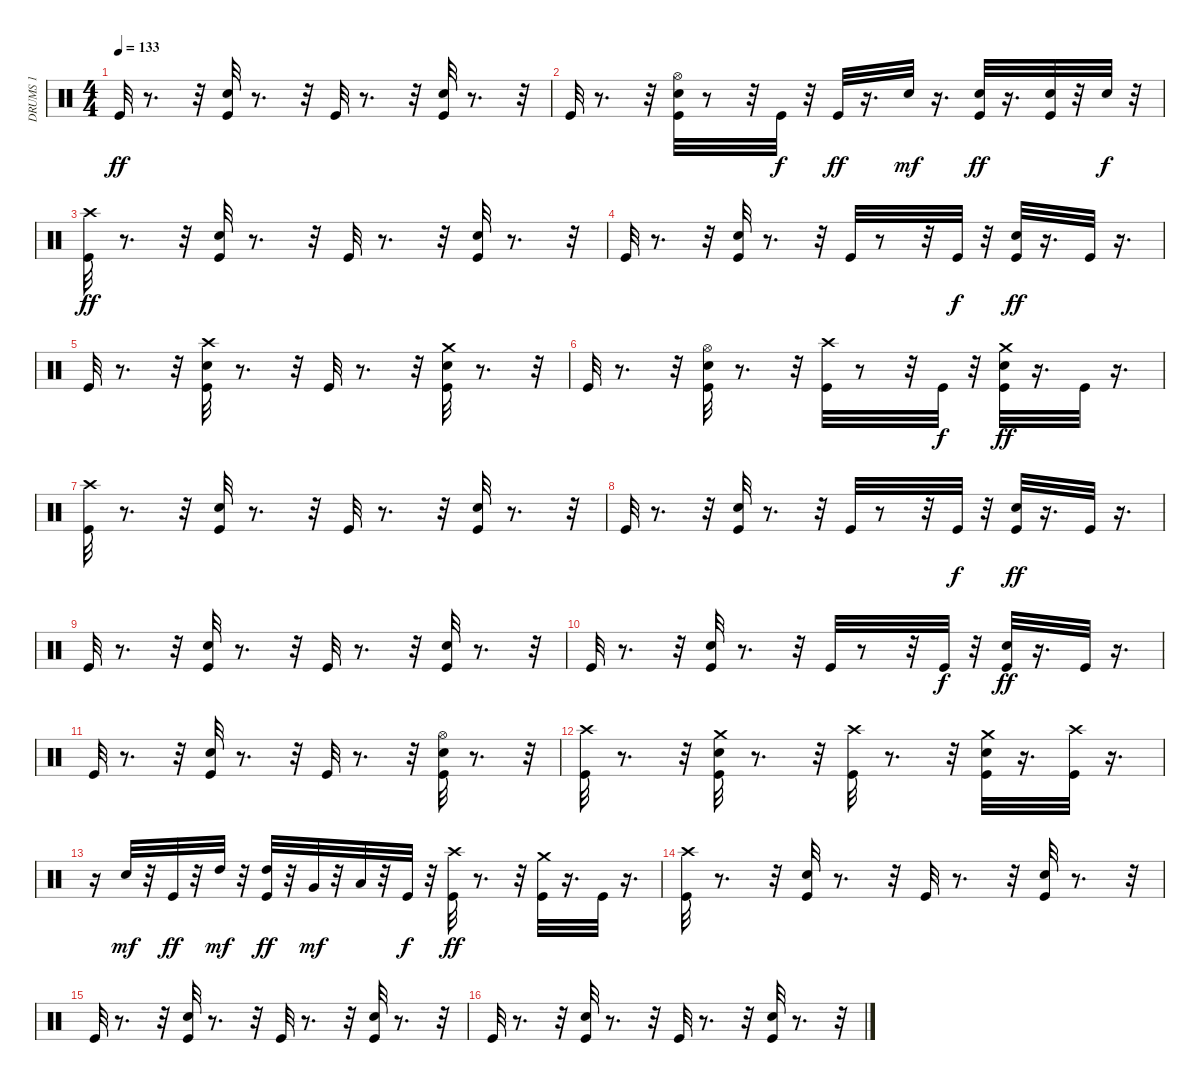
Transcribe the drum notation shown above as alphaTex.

\track ("DRUMS 1                             " "DRUMS 1   ") {instrument percussion}
\staff {score}
\articulation defaults
\ts (4 4)
\tempo 133
\clef neutral
\ks c "Kick (hit)".32{dy ff}
r.8{d} r.32 ("Electric Snare (hit)" "Kick (hit)").32 r.8{d} r.32 "Kick (hit)".32 r.8{d} r.32 ("Electric Snare (hit)" "Kick (hit)").32 r.8{d} r.32 |
"Kick (hit)".32 r.8{d} r.32 ("Hi-Hat (open)" "Electric Snare (hit)" "Kick (hit)").32 r.8 r.32 "Kick (hit)".32{dy f} r.32 "Kick (hit)".32{dy ff} r.16{d} "Electric Snare (hit)".32{dy mf} r.16{d} ("Electric Snare (hit)" "Kick (hit)").32{dy ff} r.16{d} ("Electric Snare (hit)" "Kick (hit)").32 r.32 "Electric Snare (hit)".32{dy f} r.32 |
("Crash high (hit)" "Kick (hit)").32{dy ff} r.8{d} r.32 ("Electric Snare (hit)" "Kick (hit)").32 r.8{d} r.32 "Kick (hit)".32 r.8{d} r.32 ("Electric Snare (hit)" "Kick (hit)").32 r.8{d} r.32 |
"Kick (hit)".32 r.8{d} r.32 ("Electric Snare (hit)" "Kick (hit)").32 r.8{d} r.32 "Kick (hit)".32 r.8 r.32 "Kick (hit)".32{dy f} r.32 ("Electric Snare (hit)" "Kick (hit)").32{dy ff} r.16{d} "Kick (hit)".32 r.16{d} |
"Kick (hit)".32 r.8{d} r.32 ("Crash high (hit)" "Electric Snare (hit)" "Kick (hit)").32 r.8{d} r.32 "Kick (hit)".32 r.8{d} r.32 ("Crash medium (hit)" "Electric Snare (hit)" "Kick (hit)").32 r.8{d} r.32 |
"Kick (hit)".32 r.8{d} r.32 ("Hi-Hat (open)" "Electric Snare (hit)" "Kick (hit)").32 r.8{d} r.32 ("Crash high (hit)" "Kick (hit)").32 r.8 r.32 "Kick (hit)".32{dy f} r.32 ("Crash medium (hit)" "Electric Snare (hit)" "Kick (hit)").32{dy ff} r.16{d} "Kick (hit)".32 r.16{d} |
("Crash high (hit)" "Kick (hit)").32 r.8{d} r.32 ("Electric Snare (hit)" "Kick (hit)").32 r.8{d} r.32 "Kick (hit)".32 r.8{d} r.32 ("Electric Snare (hit)" "Kick (hit)").32 r.8{d} r.32 |
"Kick (hit)".32 r.8{d} r.32 ("Electric Snare (hit)" "Kick (hit)").32 r.8{d} r.32 "Kick (hit)".32 r.8 r.32 "Kick (hit)".32{dy f} r.32 ("Electric Snare (hit)" "Kick (hit)").32{dy ff} r.16{d} "Kick (hit)".32 r.16{d} |
"Kick (hit)".32 r.8{d} r.32 ("Electric Snare (hit)" "Kick (hit)").32 r.8{d} r.32 "Kick (hit)".32 r.8{d} r.32 ("Electric Snare (hit)" "Kick (hit)").32 r.8{d} r.32 |
"Kick (hit)".32 r.8{d} r.32 ("Electric Snare (hit)" "Kick (hit)").32 r.8{d} r.32 "Kick (hit)".32 r.8 r.32 "Kick (hit)".32{dy f} r.32 ("Electric Snare (hit)" "Kick (hit)").32{dy ff} r.16{d} "Kick (hit)".32 r.16{d} |
"Kick (hit)".32 r.8{d} r.32 ("Electric Snare (hit)" "Kick (hit)").32 r.8{d} r.32 "Kick (hit)".32 r.8{d} r.32 ("Hi-Hat (open)" "Electric Snare (hit)" "Kick (hit)").32 r.8{d} r.32 |
("Crash high (hit)" "Kick (hit)").32 r.8{d} r.32 ("Electric Snare (hit)" "Crash medium (hit)" "Kick (hit)").32 r.8{d} r.32 ("Crash high (hit)" "Kick (hit)").32 r.8{d} r.32 ("Electric Snare (hit)" "Crash medium (hit)" "Kick (hit)").32 r.16{d} ("Crash high (hit)" "Kick (hit)").32 r.16{d} |
r.16 "Electric Snare (hit)".32{dy mf} r.32 "Kick (hit)".32{dy ff} r.32 "High Tom (hit)".32{dy mf} r.32 ("High Tom (hit)" "Kick (hit)").32{dy ff} r.32 "Very Low Tom (hit)".32{dy mf} r.32 "Low Floor Tom (hit)".32 r.32 "Kick (hit)".32{dy f} r.32 ("Crash high (hit)" "Kick (hit)").32{dy ff} r.8{d} r.32 ("Crash medium (hit)" "Kick (hit)").32 r.16{d} "Kick (hit)".32 r.16{d} |
("Crash high (hit)" "Kick (hit)").32 r.8{d} r.32 ("Electric Snare (hit)" "Kick (hit)").32 r.8{d} r.32 "Kick (hit)".32 r.8{d} r.32 ("Electric Snare (hit)" "Kick (hit)").32 r.8{d} r.32 |
"Kick (hit)".32 r.8{d} r.32 ("Electric Snare (hit)" "Kick (hit)").32 r.8{d} r.32 "Kick (hit)".32 r.8{d} r.32 ("Electric Snare (hit)" "Kick (hit)").32 r.8{d} r.32 |
"Kick (hit)".32 r.8{d} r.32 ("Electric Snare (hit)" "Kick (hit)").32 r.8{d} r.32 "Kick (hit)".32 r.8{d} r.32 ("Electric Snare (hit)" "Kick (hit)").32 r.8{d} r.32
